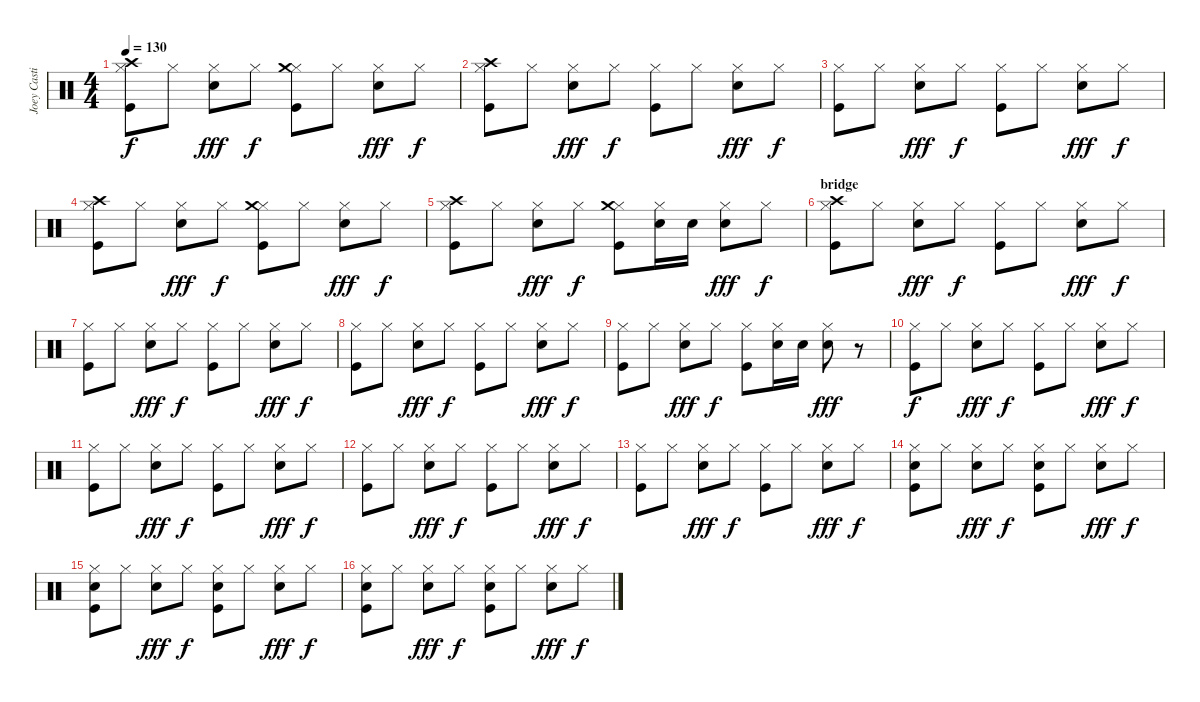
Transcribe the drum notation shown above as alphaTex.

\track ("Joey Castillo - drums" "Joey Casti") {instrument percussion}
\staff {score}
\articulation defaults
\ts (4 4)
\tempo 130
\clef neutral
\ks c
("Hi-Hat (closed)" "Kick (hit)" "Crash high (hit)").8{dy f} "Hi-Hat (closed)".8 ("Hi-Hat (closed)" "Electric Snare (hit)").8{dy fff} "Hi-Hat (closed)".8{dy f} ("Hi-Hat (closed)" "Kick (hit)" "Crash medium (hit)").8 "Hi-Hat (closed)".8 ("Hi-Hat (closed)" "Electric Snare (hit)").8{dy fff} "Hi-Hat (closed)".8{dy f} |
("Hi-Hat (closed)" "Kick (hit)" "Crash high (hit)").8 "Hi-Hat (closed)".8 ("Hi-Hat (closed)" "Electric Snare (hit)").8{dy fff} "Hi-Hat (closed)".8{dy f} ("Hi-Hat (closed)" "Kick (hit)").8 "Hi-Hat (closed)".8 ("Hi-Hat (closed)" "Electric Snare (hit)").8{dy fff} "Hi-Hat (closed)".8{dy f} |
("Hi-Hat (closed)" "Kick (hit)").8 "Hi-Hat (closed)".8 ("Hi-Hat (closed)" "Electric Snare (hit)").8{dy fff} "Hi-Hat (closed)".8{dy f} ("Hi-Hat (closed)" "Kick (hit)").8 "Hi-Hat (closed)".8 ("Hi-Hat (closed)" "Electric Snare (hit)").8{dy fff} "Hi-Hat (closed)".8{dy f} |
("Hi-Hat (closed)" "Kick (hit)" "Crash high (hit)").8 "Hi-Hat (closed)".8 ("Hi-Hat (closed)" "Electric Snare (hit)").8{dy fff} "Hi-Hat (closed)".8{dy f} ("Hi-Hat (closed)" "Kick (hit)" "Crash medium (hit)").8 "Hi-Hat (closed)".8 ("Hi-Hat (closed)" "Electric Snare (hit)").8{dy fff} "Hi-Hat (closed)".8{dy f} |
("Hi-Hat (closed)" "Kick (hit)" "Crash high (hit)").8 "Hi-Hat (closed)".8 ("Hi-Hat (closed)" "Electric Snare (hit)").8{dy fff} "Hi-Hat (closed)".8{dy f} ("Hi-Hat (closed)" "Kick (hit)" "Crash medium (hit)").8 ("Hi-Hat (closed)" "Electric Snare (hit)").16 "Electric Snare (hit)".16 ("Hi-Hat (closed)" "Electric Snare (hit)").8{dy fff} "Hi-Hat (closed)".8{dy f} |
\section ("" "bridge")
("Hi-Hat (closed)" "Kick (hit)" "Crash high (hit)").8 "Hi-Hat (closed)".8 ("Hi-Hat (closed)" "Electric Snare (hit)").8{dy fff} "Hi-Hat (closed)".8{dy f} ("Hi-Hat (closed)" "Kick (hit)").8 "Hi-Hat (closed)".8 ("Hi-Hat (closed)" "Electric Snare (hit)").8{dy fff} "Hi-Hat (closed)".8{dy f} |
("Hi-Hat (closed)" "Kick (hit)").8 "Hi-Hat (closed)".8 ("Hi-Hat (closed)" "Electric Snare (hit)").8{dy fff} "Hi-Hat (closed)".8{dy f} ("Hi-Hat (closed)" "Kick (hit)").8 "Hi-Hat (closed)".8 ("Hi-Hat (closed)" "Electric Snare (hit)").8{dy fff} "Hi-Hat (closed)".8{dy f} |
("Hi-Hat (closed)" "Kick (hit)").8 "Hi-Hat (closed)".8 ("Hi-Hat (closed)" "Electric Snare (hit)").8{dy fff} "Hi-Hat (closed)".8{dy f} ("Hi-Hat (closed)" "Kick (hit)").8 "Hi-Hat (closed)".8 ("Hi-Hat (closed)" "Electric Snare (hit)").8{dy fff} "Hi-Hat (closed)".8{dy f} |
("Hi-Hat (closed)" "Kick (hit)").8 "Hi-Hat (closed)".8 ("Hi-Hat (closed)" "Electric Snare (hit)").8{dy fff} "Hi-Hat (closed)".8{dy f} ("Hi-Hat (closed)" "Kick (hit)").8 ("Hi-Hat (closed)" "Electric Snare (hit)").16 "Electric Snare (hit)".16 ("Hi-Hat (closed)" "Electric Snare (hit)").8{dy fff} r.8 |
("Hi-Hat (closed)" "Kick (hit)").8{dy f} "Hi-Hat (closed)".8 ("Hi-Hat (closed)" "Electric Snare (hit)").8{dy fff} "Hi-Hat (closed)".8{dy f} ("Hi-Hat (closed)" "Kick (hit)").8 "Hi-Hat (closed)".8 ("Hi-Hat (closed)" "Electric Snare (hit)").8{dy fff} "Hi-Hat (closed)".8{dy f} |
("Hi-Hat (closed)" "Kick (hit)").8 "Hi-Hat (closed)".8 ("Hi-Hat (closed)" "Electric Snare (hit)").8{dy fff} "Hi-Hat (closed)".8{dy f} ("Hi-Hat (closed)" "Kick (hit)").8 "Hi-Hat (closed)".8 ("Hi-Hat (closed)" "Electric Snare (hit)").8{dy fff} "Hi-Hat (closed)".8{dy f} |
("Hi-Hat (closed)" "Kick (hit)").8 "Hi-Hat (closed)".8 ("Hi-Hat (closed)" "Electric Snare (hit)").8{dy fff} "Hi-Hat (closed)".8{dy f} ("Hi-Hat (closed)" "Kick (hit)").8 "Hi-Hat (closed)".8 ("Hi-Hat (closed)" "Electric Snare (hit)").8{dy fff} "Hi-Hat (closed)".8{dy f} |
("Hi-Hat (closed)" "Kick (hit)").8 "Hi-Hat (closed)".8 ("Hi-Hat (closed)" "Electric Snare (hit)").8{dy fff} "Hi-Hat (closed)".8{dy f} ("Hi-Hat (closed)" "Kick (hit)").8 "Hi-Hat (closed)".8 ("Hi-Hat (closed)" "Electric Snare (hit)").8{dy fff} "Hi-Hat (closed)".8{dy f} |
("Hi-Hat (closed)" "Kick (hit)" "Hand Clap (hit)").8 "Hi-Hat (closed)".8 ("Hi-Hat (closed)" "Electric Snare (hit)").8{dy fff} "Hi-Hat (closed)".8{dy f} ("Hi-Hat (closed)" "Kick (hit)" "Hand Clap (hit)").8 "Hi-Hat (closed)".8 ("Hi-Hat (closed)" "Electric Snare (hit)").8{dy fff} "Hi-Hat (closed)".8{dy f} |
("Hi-Hat (closed)" "Kick (hit)" "Hand Clap (hit)").8 "Hi-Hat (closed)".8 ("Hi-Hat (closed)" "Electric Snare (hit)").8{dy fff} "Hi-Hat (closed)".8{dy f} ("Hi-Hat (closed)" "Kick (hit)" "Hand Clap (hit)").8 "Hi-Hat (closed)".8 ("Hi-Hat (closed)" "Electric Snare (hit)").8{dy fff} "Hi-Hat (closed)".8{dy f} |
("Hi-Hat (closed)" "Kick (hit)" "Hand Clap (hit)").8 "Hi-Hat (closed)".8 ("Hi-Hat (closed)" "Electric Snare (hit)").8{dy fff} "Hi-Hat (closed)".8{dy f} ("Hi-Hat (closed)" "Kick (hit)" "Hand Clap (hit)").8 "Hi-Hat (closed)".8 ("Hi-Hat (closed)" "Electric Snare (hit)").8{dy fff} "Hi-Hat (closed)".8{dy f}
